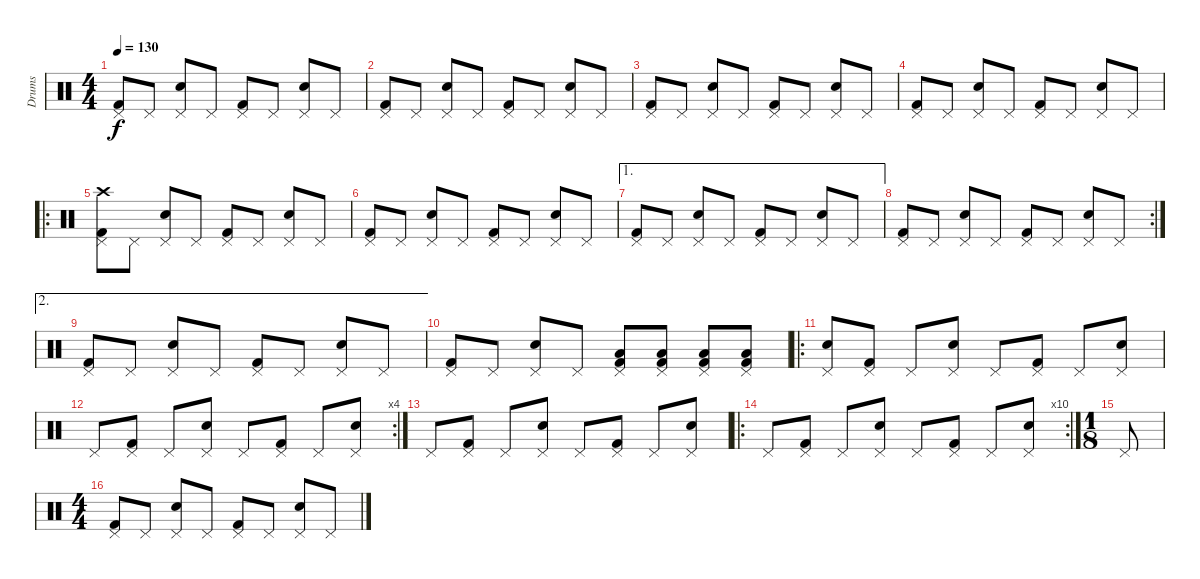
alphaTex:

\track ("Drums" "Drums") {instrument percussion}
\staff {score}
\articulation defaults
\ts (4 4)
\tempo 130
\clef neutral
\ks c
("Pedal Hi-Hat (hit)" "Kick (hit) 2").8{dy f} "Pedal Hi-Hat (hit)".8 ("Pedal Hi-Hat (hit)" "Snare (hit) 2").8 "Pedal Hi-Hat (hit)".8 ("Pedal Hi-Hat (hit)" "Kick (hit) 2").8 "Pedal Hi-Hat (hit)".8 ("Pedal Hi-Hat (hit)" "Snare (hit) 2").8 "Pedal Hi-Hat (hit)".8 |
("Pedal Hi-Hat (hit)" "Kick (hit) 2").8 "Pedal Hi-Hat (hit)".8 ("Pedal Hi-Hat (hit)" "Snare (hit) 2").8 "Pedal Hi-Hat (hit)".8 ("Pedal Hi-Hat (hit)" "Kick (hit) 2").8 "Pedal Hi-Hat (hit)".8 ("Pedal Hi-Hat (hit)" "Snare (hit) 2").8 "Pedal Hi-Hat (hit)".8 |
("Pedal Hi-Hat (hit)" "Kick (hit) 2").8 "Pedal Hi-Hat (hit)".8 ("Pedal Hi-Hat (hit)" "Snare (hit) 2").8 "Pedal Hi-Hat (hit)".8 ("Pedal Hi-Hat (hit)" "Kick (hit) 2").8 "Pedal Hi-Hat (hit)".8 ("Pedal Hi-Hat (hit)" "Snare (hit) 2").8 "Pedal Hi-Hat (hit)".8 |
("Pedal Hi-Hat (hit)" "Kick (hit) 2").8 "Pedal Hi-Hat (hit)".8 ("Pedal Hi-Hat (hit)" "Snare (hit) 2").8 "Pedal Hi-Hat (hit)".8 ("Pedal Hi-Hat (hit)" "Kick (hit) 2").8 "Pedal Hi-Hat (hit)".8 ("Pedal Hi-Hat (hit)" "Snare (hit) 2").8 "Pedal Hi-Hat (hit)".8 |
\ro
("Pedal Hi-Hat (hit)" "Crash high (hit)" "Kick (hit) 2").8 "Pedal Hi-Hat (hit)".8 ("Pedal Hi-Hat (hit)" "Snare (hit) 2").8 "Pedal Hi-Hat (hit)".8 ("Pedal Hi-Hat (hit)" "Kick (hit) 2").8 "Pedal Hi-Hat (hit)".8 ("Pedal Hi-Hat (hit)" "Snare (hit) 2").8 "Pedal Hi-Hat (hit)".8 |
("Pedal Hi-Hat (hit)" "Kick (hit) 2").8 "Pedal Hi-Hat (hit)".8 ("Pedal Hi-Hat (hit)" "Snare (hit) 2").8 "Pedal Hi-Hat (hit)".8 ("Pedal Hi-Hat (hit)" "Kick (hit) 2").8 "Pedal Hi-Hat (hit)".8 ("Pedal Hi-Hat (hit)" "Snare (hit) 2").8 "Pedal Hi-Hat (hit)".8 |
\ae 1
("Pedal Hi-Hat (hit)" "Kick (hit) 2").8 "Pedal Hi-Hat (hit)".8 ("Pedal Hi-Hat (hit)" "Snare (hit) 2").8 "Pedal Hi-Hat (hit)".8 ("Pedal Hi-Hat (hit)" "Kick (hit) 2").8 "Pedal Hi-Hat (hit)".8 ("Pedal Hi-Hat (hit)" "Snare (hit) 2").8 "Pedal Hi-Hat (hit)".8 |
\rc 2
("Pedal Hi-Hat (hit)" "Kick (hit) 2").8 "Pedal Hi-Hat (hit)".8 ("Pedal Hi-Hat (hit)" "Snare (hit) 2").8 "Pedal Hi-Hat (hit)".8 ("Pedal Hi-Hat (hit)" "Kick (hit) 2").8 "Pedal Hi-Hat (hit)".8 ("Pedal Hi-Hat (hit)" "Snare (hit) 2").8 "Pedal Hi-Hat (hit)".8 |
\ae 2
("Pedal Hi-Hat (hit)" "Kick (hit) 2").8 "Pedal Hi-Hat (hit)".8 ("Pedal Hi-Hat (hit)" "Snare (hit) 2").8 "Pedal Hi-Hat (hit)".8 ("Pedal Hi-Hat (hit)" "Kick (hit) 2").8 "Pedal Hi-Hat (hit)".8 ("Pedal Hi-Hat (hit)" "Snare (hit) 2").8 "Pedal Hi-Hat (hit)".8 |
("Pedal Hi-Hat (hit)" "Kick (hit) 2").8 "Pedal Hi-Hat (hit)".8 ("Pedal Hi-Hat (hit)" "Snare (hit) 2").8 "Pedal Hi-Hat (hit)".8 ("Pedal Hi-Hat (hit)" "Low Tom (hit)" "Kick (hit) 2").8 ("Pedal Hi-Hat (hit)" "Low Tom (hit)" "Kick (hit) 2").8 ("Pedal Hi-Hat (hit)" "Low Tom (hit)" "Kick (hit) 2").8 ("Pedal Hi-Hat (hit)" "Low Tom (hit)" "Kick (hit) 2").8 |
\ro
("Pedal Hi-Hat (hit)" "Snare (hit) 2").8 ("Pedal Hi-Hat (hit)" "Kick (hit) 2").8 "Pedal Hi-Hat (hit)".8 ("Pedal Hi-Hat (hit)" "Snare (hit) 2").8 "Pedal Hi-Hat (hit)".8 ("Pedal Hi-Hat (hit)" "Kick (hit) 2").8 "Pedal Hi-Hat (hit)".8 ("Pedal Hi-Hat (hit)" "Snare (hit) 2").8 |
\rc 4 "Pedal Hi-Hat (hit)".8
("Pedal Hi-Hat (hit)" "Kick (hit) 2").8 "Pedal Hi-Hat (hit)".8 ("Pedal Hi-Hat (hit)" "Snare (hit) 2").8 "Pedal Hi-Hat (hit)".8 ("Pedal Hi-Hat (hit)" "Kick (hit) 2").8 "Pedal Hi-Hat (hit)".8 ("Pedal Hi-Hat (hit)" "Snare (hit) 2").8 |
"Pedal Hi-Hat (hit)".8 ("Pedal Hi-Hat (hit)" "Kick (hit) 2").8 "Pedal Hi-Hat (hit)".8 ("Pedal Hi-Hat (hit)" "Snare (hit) 2").8 "Pedal Hi-Hat (hit)".8 ("Pedal Hi-Hat (hit)" "Kick (hit) 2").8 "Pedal Hi-Hat (hit)".8 ("Pedal Hi-Hat (hit)" "Snare (hit) 2").8 |
\ro
\rc 10 "Pedal Hi-Hat (hit)".8
("Pedal Hi-Hat (hit)" "Kick (hit) 2").8 "Pedal Hi-Hat (hit)".8 ("Pedal Hi-Hat (hit)" "Snare (hit) 2").8 "Pedal Hi-Hat (hit)".8 ("Pedal Hi-Hat (hit)" "Kick (hit) 2").8 "Pedal Hi-Hat (hit)".8 ("Pedal Hi-Hat (hit)" "Snare (hit) 2").8 |
\ts (1 8)
"Pedal Hi-Hat (hit)".8 |
\ts (4 4)
("Pedal Hi-Hat (hit)" "Kick (hit) 2").8 "Pedal Hi-Hat (hit)".8 ("Pedal Hi-Hat (hit)" "Snare (hit) 2").8 "Pedal Hi-Hat (hit)".8 ("Pedal Hi-Hat (hit)" "Kick (hit) 2").8 "Pedal Hi-Hat (hit)".8 ("Pedal Hi-Hat (hit)" "Snare (hit) 2").8 "Pedal Hi-Hat (hit)".8
